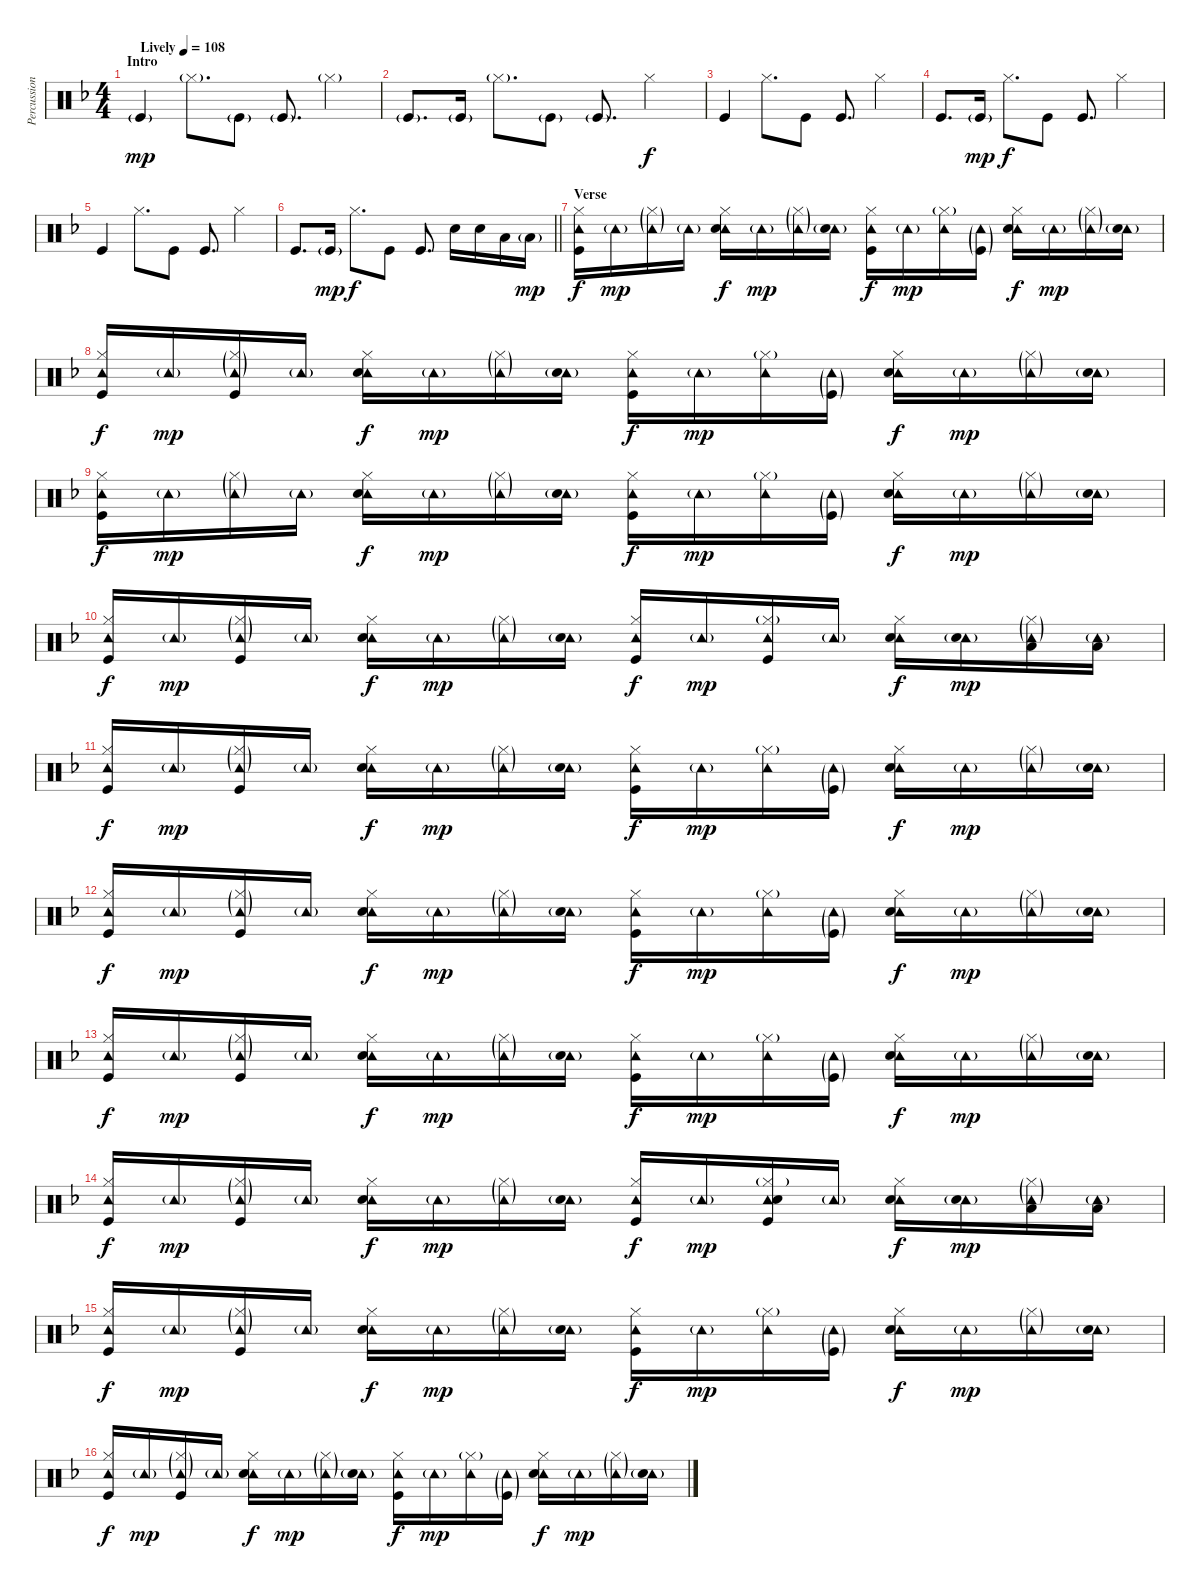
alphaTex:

\track ("Percussion" "Percussion") {instrument percussion}
\staff {score}
\articulation defaults
\ts (4 4)
\section ("" "Intro")
\tempo (108 "Lively")
\clef neutral
\ks f "Kick (hit)"{g}.4{dy mp} "Hi-Hat (closed)"{g}.8{d} "Kick (hit)"{g}.8 "Kick (hit)"{g}.8{d} "Hi-Hat (closed)"{g}.4
|
"Kick (hit)"{g}.8{d} "Kick (hit)"{g}.16 "Hi-Hat (closed)"{g}.8{d} "Kick (hit)"{g}.8 "Kick (hit)"{g}.8{d} "Hi-Hat (closed)".4{dy f} |
"Kick (hit)".4 "Hi-Hat (closed)".8{d} "Kick (hit)".8 "Kick (hit)".8{d} "Hi-Hat (closed)".4 |
"Kick (hit)".8{d} "Kick (hit)"{g}.16{dy mp} "Hi-Hat (closed)".8{d dy f} "Kick (hit)".8 "Kick (hit)".8{d} "Hi-Hat (closed)".4 |
"Kick (hit)".4 "Hi-Hat (closed)".8{d} "Kick (hit)".8 "Kick (hit)".8{d} "Hi-Hat (closed)".4 |
\barLineRight lightlight "Kick (hit)".8{d} "Kick (hit)"{g}.16{dy mp} "Hi-Hat (closed)".8{d dy f} "Kick (hit)".8 "Kick (hit)".8{d} "Snare (hit) 2".16 "Snare (hit) 2".16 "Low Tom (hit)".16 "Low Tom (hit)"{g}.16{dy mp}
|
\section ("" "Verse")
("Tambourine (hit)" "Hi-Hat (closed)" "Kick (hit)").16{dy f} "Tambourine (hit)"{g}.16{dy mp} ("Tambourine (hit)"{g} "Hi-Hat (closed)"{g}).16 "Tambourine (hit)"{g}.16 ("Tambourine (hit)" "Hi-Hat (closed)" "Snare (hit) 2").16{dy f} "Tambourine (hit)"{g}.16{dy mp} ("Tambourine (hit)"{g} "Hi-Hat (closed)"{g}).16 ("Tambourine (hit)"{g} "Snare (hit) 2"{g}).16 ("Tambourine (hit)" "Hi-Hat (closed)" "Kick (hit)").16{dy f} "Tambourine (hit)"{g}.16{dy mp} ("Tambourine (hit)" "Hi-Hat (closed)"{g}).16 ("Tambourine (hit)"{g} "Kick (hit)"{g}).16 ("Tambourine (hit)" "Hi-Hat (closed)" "Snare (hit) 2").16{dy f} "Tambourine (hit)"{g}.16{dy mp} ("Tambourine (hit)"{g} "Hi-Hat (closed)"{g}).16 ("Tambourine (hit)"{g} "Snare (hit) 2"{g}).16 |
("Tambourine (hit)" "Hi-Hat (closed)" "Kick (hit)").16{dy f} "Tambourine (hit)"{g}.16{dy mp} ("Tambourine (hit)"{g} "Hi-Hat (closed)"{g} "Kick (hit)").16 "Tambourine (hit)"{g}.16 ("Tambourine (hit)" "Hi-Hat (closed)" "Snare (hit) 2").16{dy f} "Tambourine (hit)"{g}.16{dy mp} ("Tambourine (hit)"{g} "Hi-Hat (closed)"{g}).16 ("Tambourine (hit)"{g} "Snare (hit) 2"{g}).16 ("Tambourine (hit)" "Hi-Hat (closed)" "Kick (hit)").16{dy f} "Tambourine (hit)"{g}.16{dy mp} ("Tambourine (hit)" "Hi-Hat (closed)"{g}).16 ("Tambourine (hit)"{g} "Kick (hit)"{g}).16 ("Tambourine (hit)" "Hi-Hat (closed)" "Snare (hit) 2").16{dy f} "Tambourine (hit)"{g}.16{dy mp} ("Tambourine (hit)"{g} "Hi-Hat (closed)"{g}).16 ("Tambourine (hit)"{g} "Snare (hit) 2"{g}).16 |
("Tambourine (hit)" "Hi-Hat (closed)" "Kick (hit)").16{dy f} "Tambourine (hit)"{g}.16{dy mp} ("Tambourine (hit)"{g} "Hi-Hat (closed)"{g}).16 "Tambourine (hit)"{g}.16 ("Tambourine (hit)" "Hi-Hat (closed)" "Snare (hit) 2").16{dy f} "Tambourine (hit)"{g}.16{dy mp} ("Tambourine (hit)"{g} "Hi-Hat (closed)"{g}).16 ("Tambourine (hit)"{g} "Snare (hit) 2"{g}).16 ("Tambourine (hit)" "Hi-Hat (closed)" "Kick (hit)").16{dy f} "Tambourine (hit)"{g}.16{dy mp} ("Tambourine (hit)" "Hi-Hat (closed)"{g}).16 ("Tambourine (hit)"{g} "Kick (hit)"{g}).16 ("Tambourine (hit)" "Hi-Hat (closed)" "Snare (hit) 2").16{dy f} "Tambourine (hit)"{g}.16{dy mp} ("Tambourine (hit)"{g} "Hi-Hat (closed)"{g}).16 ("Tambourine (hit)"{g} "Snare (hit) 2"{g}).16 |
("Tambourine (hit)" "Hi-Hat (closed)" "Kick (hit)").16{dy f} "Tambourine (hit)"{g}.16{dy mp} ("Tambourine (hit)"{g} "Hi-Hat (closed)"{g} "Kick (hit)").16 "Tambourine (hit)"{g}.16 ("Tambourine (hit)" "Hi-Hat (closed)" "Snare (hit) 2").16{dy f} "Tambourine (hit)"{g}.16{dy mp} ("Tambourine (hit)"{g} "Hi-Hat (closed)"{g}).16 ("Tambourine (hit)"{g} "Snare (hit) 2"{g}).16 ("Tambourine (hit)" "Hi-Hat (closed)" "Kick (hit)").16{dy f} "Tambourine (hit)"{g}.16{dy mp} ("Tambourine (hit)" "Hi-Hat (closed)"{g} "Kick (hit)").16 "Tambourine (hit)"{g}.16 ("Tambourine (hit)" "Hi-Hat (closed)" "Snare (hit) 2").16{dy f} ("Tambourine (hit)"{g} "Snare (hit) 2").16{dy mp} ("Tambourine (hit)"{g} "Hi-Hat (closed)"{g} "Low Tom (hit)").16 ("Tambourine (hit)"{g} "Low Tom (hit)").16 |
("Tambourine (hit)" "Hi-Hat (closed)" "Kick (hit)").16{dy f} "Tambourine (hit)"{g}.16{dy mp} ("Tambourine (hit)"{g} "Hi-Hat (closed)"{g} "Kick (hit)").16 "Tambourine (hit)"{g}.16 ("Tambourine (hit)" "Hi-Hat (closed)" "Snare (hit) 2").16{dy f} "Tambourine (hit)"{g}.16{dy mp} ("Tambourine (hit)"{g} "Hi-Hat (closed)"{g}).16 ("Tambourine (hit)"{g} "Snare (hit) 2"{g}).16 ("Tambourine (hit)" "Hi-Hat (closed)" "Kick (hit)").16{dy f} "Tambourine (hit)"{g}.16{dy mp} ("Tambourine (hit)" "Hi-Hat (closed)"{g}).16 ("Tambourine (hit)"{g} "Kick (hit)"{g}).16 ("Tambourine (hit)" "Hi-Hat (closed)" "Snare (hit) 2").16{dy f} "Tambourine (hit)"{g}.16{dy mp} ("Tambourine (hit)"{g} "Hi-Hat (closed)"{g}).16 ("Tambourine (hit)"{g} "Snare (hit) 2"{g}).16 |
("Tambourine (hit)" "Hi-Hat (closed)" "Kick (hit)").16{dy f} "Tambourine (hit)"{g}.16{dy mp} ("Tambourine (hit)"{g} "Hi-Hat (closed)"{g} "Kick (hit)").16 "Tambourine (hit)"{g}.16 ("Tambourine (hit)" "Hi-Hat (closed)" "Snare (hit) 2").16{dy f} "Tambourine (hit)"{g}.16{dy mp} ("Tambourine (hit)"{g} "Hi-Hat (closed)"{g}).16 ("Tambourine (hit)"{g} "Snare (hit) 2"{g}).16 ("Tambourine (hit)" "Hi-Hat (closed)" "Kick (hit)").16{dy f} "Tambourine (hit)"{g}.16{dy mp} ("Tambourine (hit)" "Hi-Hat (closed)"{g}).16 ("Tambourine (hit)"{g} "Kick (hit)"{g}).16 ("Tambourine (hit)" "Hi-Hat (closed)" "Snare (hit) 2").16{dy f} "Tambourine (hit)"{g}.16{dy mp} ("Tambourine (hit)"{g} "Hi-Hat (closed)"{g}).16 ("Tambourine (hit)"{g} "Snare (hit) 2"{g}).16 |
("Tambourine (hit)" "Hi-Hat (closed)" "Kick (hit)").16{dy f} "Tambourine (hit)"{g}.16{dy mp} ("Tambourine (hit)"{g} "Hi-Hat (closed)"{g} "Kick (hit)").16 "Tambourine (hit)"{g}.16 ("Tambourine (hit)" "Hi-Hat (closed)" "Snare (hit) 2").16{dy f} "Tambourine (hit)"{g}.16{dy mp} ("Tambourine (hit)"{g} "Hi-Hat (closed)"{g}).16 ("Tambourine (hit)"{g} "Snare (hit) 2"{g}).16 ("Tambourine (hit)" "Hi-Hat (closed)" "Kick (hit)").16{dy f} "Tambourine (hit)"{g}.16{dy mp} ("Tambourine (hit)" "Hi-Hat (closed)"{g}).16 ("Tambourine (hit)"{g} "Kick (hit)"{g}).16 ("Tambourine (hit)" "Hi-Hat (closed)" "Snare (hit) 2").16{dy f} "Tambourine (hit)"{g}.16{dy mp} ("Tambourine (hit)"{g} "Hi-Hat (closed)"{g}).16 ("Tambourine (hit)"{g} "Snare (hit) 2"{g}).16 |
("Tambourine (hit)" "Hi-Hat (closed)" "Kick (hit)").16{dy f} "Tambourine (hit)"{g}.16{dy mp} ("Tambourine (hit)"{g} "Hi-Hat (closed)"{g} "Kick (hit)").16 "Tambourine (hit)"{g}.16 ("Tambourine (hit)" "Hi-Hat (closed)" "Snare (hit) 2").16{dy f} "Tambourine (hit)"{g}.16{dy mp} ("Tambourine (hit)"{g} "Hi-Hat (closed)"{g}).16 ("Tambourine (hit)"{g} "Snare (hit) 2"{g}).16 ("Tambourine (hit)" "Hi-Hat (closed)" "Kick (hit)").16{dy f} "Tambourine (hit)"{g}.16{dy mp} ("Tambourine (hit)" "Hi-Hat (closed)"{g} "Snare (hit) 2" "Kick (hit)").16 "Tambourine (hit)"{g}.16 ("Tambourine (hit)" "Hi-Hat (closed)" "Snare (hit) 2").16{dy f} ("Tambourine (hit)"{g} "Snare (hit) 2").16{dy mp} ("Tambourine (hit)"{g} "Hi-Hat (closed)"{g} "Low Tom (hit)").16 ("Tambourine (hit)"{g} "Low Tom (hit)").16 |
("Tambourine (hit)" "Hi-Hat (closed)" "Kick (hit)").16{dy f} "Tambourine (hit)"{g}.16{dy mp} ("Tambourine (hit)"{g} "Hi-Hat (closed)"{g} "Kick (hit)").16 "Tambourine (hit)"{g}.16 ("Tambourine (hit)" "Hi-Hat (closed)" "Snare (hit) 2").16{dy f} "Tambourine (hit)"{g}.16{dy mp} ("Tambourine (hit)"{g} "Hi-Hat (closed)"{g}).16 ("Tambourine (hit)"{g} "Snare (hit) 2"{g}).16 ("Tambourine (hit)" "Hi-Hat (closed)" "Kick (hit)").16{dy f} "Tambourine (hit)"{g}.16{dy mp} ("Tambourine (hit)" "Hi-Hat (closed)"{g}).16 ("Tambourine (hit)"{g} "Kick (hit)"{g}).16 ("Tambourine (hit)" "Hi-Hat (closed)" "Snare (hit) 2").16{dy f} "Tambourine (hit)"{g}.16{dy mp} ("Tambourine (hit)"{g} "Hi-Hat (closed)"{g}).16 ("Tambourine (hit)"{g} "Snare (hit) 2"{g}).16 |
("Tambourine (hit)" "Hi-Hat (closed)" "Kick (hit)").16{dy f} "Tambourine (hit)"{g}.16{dy mp} ("Tambourine (hit)"{g} "Hi-Hat (closed)"{g} "Kick (hit)").16 "Tambourine (hit)"{g}.16 ("Tambourine (hit)" "Hi-Hat (closed)" "Snare (hit) 2").16{dy f} "Tambourine (hit)"{g}.16{dy mp} ("Tambourine (hit)"{g} "Hi-Hat (closed)"{g}).16 ("Tambourine (hit)"{g} "Snare (hit) 2"{g}).16 ("Tambourine (hit)" "Hi-Hat (closed)" "Kick (hit)").16{dy f} "Tambourine (hit)"{g}.16{dy mp} ("Tambourine (hit)" "Hi-Hat (closed)"{g}).16 ("Tambourine (hit)"{g} "Kick (hit)"{g}).16 ("Tambourine (hit)" "Hi-Hat (closed)" "Snare (hit) 2").16{dy f} "Tambourine (hit)"{g}.16{dy mp} ("Tambourine (hit)"{g} "Hi-Hat (closed)"{g}).16 ("Tambourine (hit)"{g} "Snare (hit) 2"{g}).16
